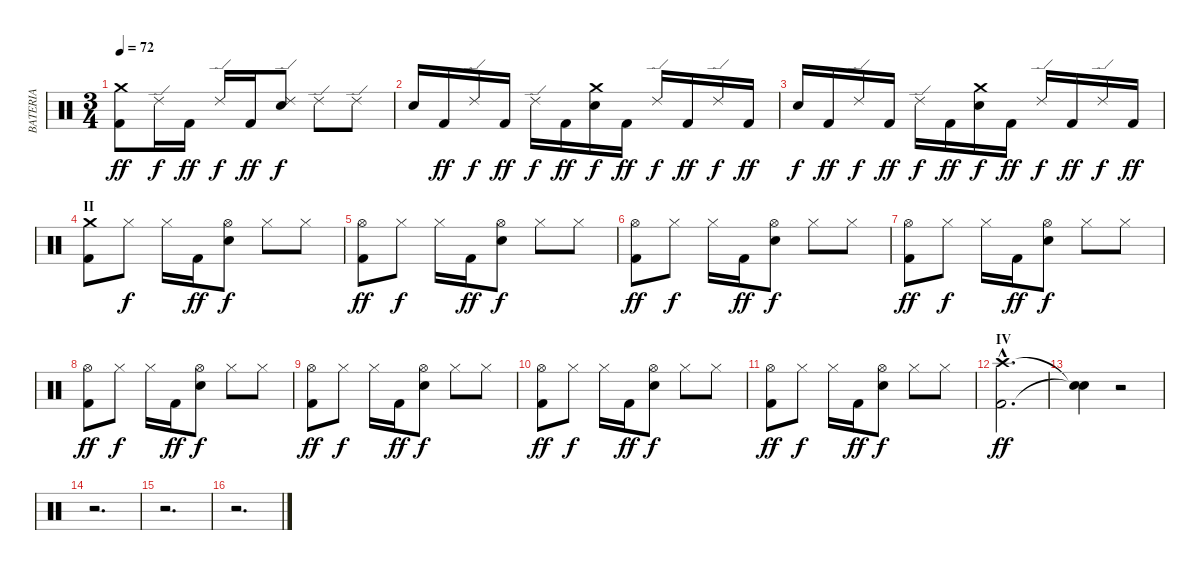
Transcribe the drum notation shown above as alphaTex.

\track ("BATERIA" "BATERIA") {instrument percussion}
\staff {score}
\articulation defaults
\ts (3 4)
\tempo 72
\clef neutral
\ks c
("Crash medium (hit)" "Kick (hit) 2").8{dy ff} "Ride (edge) 2".16{dy f} "Kick (hit) 2".16{dy ff} "Ride (edge) 2".16{dy f} "Kick (hit) 2".16{dy ff} ("Ride (edge) 2" "Snare (hit) 2").8{dy f} "Ride (edge) 2".8 "Ride (edge) 2".8 |
"Snare (hit) 2".16 "Kick (hit) 2".16{dy ff} "Ride (edge) 2".16{dy f} "Kick (hit) 2".16{dy ff} "Ride (edge) 2".16{dy f} "Kick (hit) 2".16{dy ff} ("Crash medium (hit)" "Snare (hit) 2").16{dy f} "Kick (hit) 2".16{dy ff} "Ride (edge) 2".16{dy f} "Kick (hit) 2".16{dy ff} "Ride (edge) 2".16{dy f} "Kick (hit) 2".16{dy ff} |
"Snare (hit) 2".16{dy f} "Kick (hit) 2".16{dy ff} "Ride (edge) 2".16{dy f} "Kick (hit) 2".16{dy ff} "Ride (edge) 2".16{dy f} "Kick (hit) 2".16{dy ff} ("Crash medium (hit)" "Snare (hit) 2").16{dy f} "Kick (hit) 2".16{dy ff} "Ride (edge) 2".16{dy f} "Kick (hit) 2".16{dy ff} "Ride (edge) 2".16{dy f} "Kick (hit) 2".16{dy ff} |
\section ("" "II")
("Crash medium (hit)" "Kick (hit) 2").8 "Hi-Hat (closed)".8{dy f} "Hi-Hat (closed)".16 "Kick (hit) 2".16{dy ff} ("Hi-Hat (open)" "Snare (hit) 2").8{dy f} "Hi-Hat (closed)".8 "Hi-Hat (closed)".8 |
("Hi-Hat (open)" "Kick (hit) 2").8{dy ff} "Hi-Hat (closed)".8{dy f} "Hi-Hat (closed)".16 "Kick (hit) 2".16{dy ff} ("Hi-Hat (open)" "Snare (hit) 2").8{dy f} "Hi-Hat (closed)".8 "Hi-Hat (closed)".8 |
("Hi-Hat (open)" "Kick (hit) 2").8{dy ff} "Hi-Hat (closed)".8{dy f} "Hi-Hat (closed)".16 "Kick (hit) 2".16{dy ff} ("Hi-Hat (open)" "Snare (hit) 2").8{dy f} "Hi-Hat (closed)".8 "Hi-Hat (closed)".8 |
("Hi-Hat (open)" "Kick (hit) 2").8{dy ff} "Hi-Hat (closed)".8{dy f} "Hi-Hat (closed)".16 "Kick (hit) 2".16{dy ff} ("Hi-Hat (open)" "Snare (hit) 2").8{dy f} "Hi-Hat (closed)".8 "Hi-Hat (closed)".8 |
("Hi-Hat (open)" "Kick (hit) 2").8{dy ff} "Hi-Hat (closed)".8{dy f} "Hi-Hat (closed)".16 "Kick (hit) 2".16{dy ff} ("Hi-Hat (open)" "Snare (hit) 2").8{dy f} "Hi-Hat (closed)".8 "Hi-Hat (closed)".8 |
("Hi-Hat (open)" "Kick (hit) 2").8{dy ff} "Hi-Hat (closed)".8{dy f} "Hi-Hat (closed)".16 "Kick (hit) 2".16{dy ff} ("Hi-Hat (open)" "Snare (hit) 2").8{dy f} "Hi-Hat (closed)".8 "Hi-Hat (closed)".8 |
("Hi-Hat (open)" "Kick (hit) 2").8{dy ff} "Hi-Hat (closed)".8{dy f} "Hi-Hat (closed)".16 "Kick (hit) 2".16{dy ff} ("Hi-Hat (open)" "Snare (hit) 2").8{dy f} "Hi-Hat (closed)".8 "Hi-Hat (closed)".8 |
("Hi-Hat (open)" "Kick (hit) 2").8{dy ff} "Hi-Hat (closed)".8{dy f} "Hi-Hat (closed)".16 "Kick (hit) 2".16{dy ff} ("Hi-Hat (open)" "Snare (hit) 2").8{dy f} "Hi-Hat (closed)".8 "Hi-Hat (closed)".8 |
\section ("" "IV")
("Crash high (hit)"{hac} "Kick (hit) 2"{hac}).2{d dy ff} |
("Snare (hit)"{t} "Snare (hit)"{t}).4 r.2 |
r.2{d} |
r.2{d} |
r.2{d}
